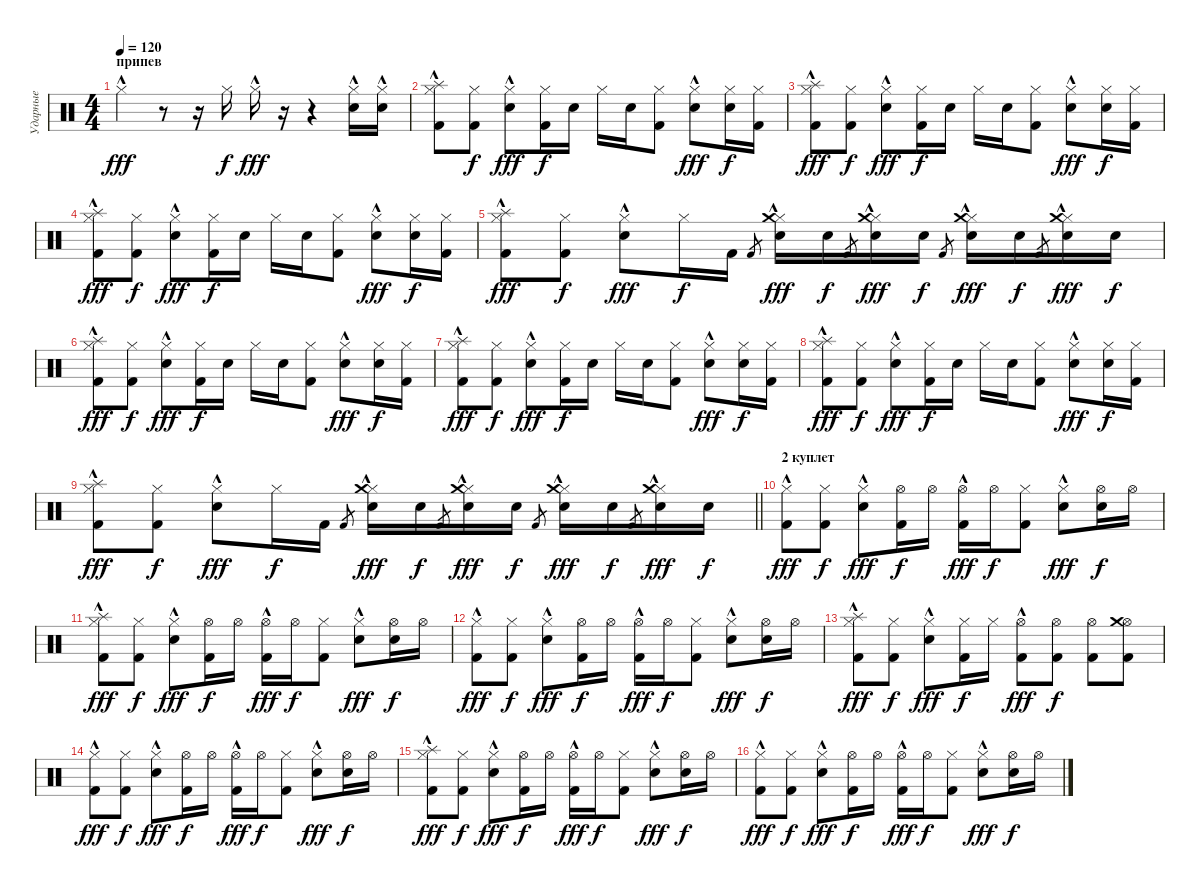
\track ("Ударные" "Ударные") {instrument percussion}
\staff {score}
\articulation defaults
\ts (4 4)
\section ("" "припев")
\tempo 120
\clef neutral
\ks c "Hi-Hat (closed)"{hac}.4{dy fff}
r.8 r.16 "Hi-Hat (closed)".16{dy f} "Hi-Hat (closed)"{hac}.16{dy fff} r.16 r.4 ("Hi-Hat (closed)" "Snare (hit) 2"{hac}).16 ("Hi-Hat (closed)" "Snare (hit) 2"{hac}).16 |
("Hi-Hat (closed)" "Splash (hit)" "Kick (hit) 2"{hac}).8 ("Hi-Hat (closed)" "Kick (hit) 2").8{dy f} ("Hi-Hat (closed)" "Snare (hit) 2"{hac}).8{dy fff} ("Hi-Hat (closed)" "Kick (hit) 2").16{dy f} "Snare (hit) 2".16 "Hi-Hat (closed)".16 "Snare (hit) 2".16 ("Hi-Hat (closed)" "Kick (hit) 2").8 ("Hi-Hat (closed)" "Snare (hit) 2"{hac}).8{dy fff} ("Hi-Hat (closed)" "Snare (hit) 2").16{dy f} ("Hi-Hat (closed)" "Kick (hit) 2").16 |
("Hi-Hat (closed)" "Splash (hit)" "Kick (hit) 2"{hac}).8{dy fff} ("Hi-Hat (closed)" "Kick (hit) 2").8{dy f} ("Hi-Hat (closed)" "Snare (hit) 2"{hac}).8{dy fff} ("Hi-Hat (closed)" "Kick (hit) 2").16{dy f} "Snare (hit) 2".16 "Hi-Hat (closed)".16 "Snare (hit) 2".16 ("Hi-Hat (closed)" "Kick (hit) 2").8 ("Hi-Hat (closed)" "Snare (hit) 2"{hac}).8{dy fff} ("Hi-Hat (closed)" "Snare (hit) 2").16{dy f} ("Hi-Hat (closed)" "Kick (hit) 2").16 |
("Hi-Hat (closed)" "Splash (hit)" "Kick (hit) 2"{hac}).8{dy fff} ("Hi-Hat (closed)" "Kick (hit) 2").8{dy f} ("Hi-Hat (closed)" "Snare (hit) 2"{hac}).8{dy fff} ("Hi-Hat (closed)" "Kick (hit) 2").16{dy f} "Snare (hit) 2".16 "Hi-Hat (closed)".16 "Snare (hit) 2".16 ("Hi-Hat (closed)" "Kick (hit) 2").8 ("Hi-Hat (closed)" "Snare (hit) 2"{hac}).8{dy fff} ("Hi-Hat (closed)" "Snare (hit) 2").16{dy f} ("Hi-Hat (closed)" "Kick (hit) 2").16 |
("Hi-Hat (closed)" "Splash (hit)" "Kick (hit) 2"{hac}).8{dy fff} ("Hi-Hat (closed)" "Kick (hit) 2").8{dy f} ("Hi-Hat (closed)" "Snare (hit) 2"{hac}).8{dy fff} "Hi-Hat (closed)".16{dy f} "Kick (hit) 2".16 "Kick (hit) 2".8{gr} ("Hi-Hat (closed)" "Crash medium (hit)" "Electric Snare (hit)"{hac}).16{dy fff} "Snare (hit) 2".16{dy f} "Kick (hit) 2".8{gr} ("Hi-Hat (closed)" "Crash medium (hit)" "Electric Snare (hit)"{hac}).16{dy fff} "Snare (hit) 2".16{dy f} "Kick (hit) 2".8{gr} ("Hi-Hat (closed)" "Crash medium (hit)" "Electric Snare (hit)"{hac}).16{dy fff} "Snare (hit) 2".16{dy f} "Kick (hit) 2".8{gr} ("Hi-Hat (closed)" "Crash medium (hit)" "Electric Snare (hit)"{hac}).16{dy fff} "Snare (hit) 2".16{dy f} |
("Hi-Hat (closed)" "Splash (hit)" "Kick (hit) 2"{hac}).8{dy fff} ("Hi-Hat (closed)" "Kick (hit) 2").8{dy f} ("Hi-Hat (closed)" "Snare (hit) 2"{hac}).8{dy fff} ("Hi-Hat (closed)" "Kick (hit) 2").16{dy f} "Snare (hit) 2".16 "Hi-Hat (closed)".16 "Snare (hit) 2".16 ("Hi-Hat (closed)" "Kick (hit) 2").8 ("Hi-Hat (closed)" "Snare (hit) 2"{hac}).8{dy fff} ("Hi-Hat (closed)" "Snare (hit) 2").16{dy f} ("Hi-Hat (closed)" "Kick (hit) 2").16 |
("Hi-Hat (closed)" "Splash (hit)" "Kick (hit) 2"{hac}).8{dy fff} ("Hi-Hat (closed)" "Kick (hit) 2").8{dy f} ("Hi-Hat (closed)" "Snare (hit) 2"{hac}).8{dy fff} ("Hi-Hat (closed)" "Kick (hit) 2").16{dy f} "Snare (hit) 2".16 "Hi-Hat (closed)".16 "Snare (hit) 2".16 ("Hi-Hat (closed)" "Kick (hit) 2").8 ("Hi-Hat (closed)" "Snare (hit) 2"{hac}).8{dy fff} ("Hi-Hat (closed)" "Snare (hit) 2").16{dy f} ("Hi-Hat (closed)" "Kick (hit) 2").16 |
("Hi-Hat (closed)" "Splash (hit)" "Kick (hit) 2"{hac}).8{dy fff} ("Hi-Hat (closed)" "Kick (hit) 2").8{dy f} ("Hi-Hat (closed)" "Snare (hit) 2"{hac}).8{dy fff} ("Hi-Hat (closed)" "Kick (hit) 2").16{dy f} "Snare (hit) 2".16 "Hi-Hat (closed)".16 "Snare (hit) 2".16 ("Hi-Hat (closed)" "Kick (hit) 2").8 ("Hi-Hat (closed)" "Snare (hit) 2"{hac}).8{dy fff} ("Hi-Hat (closed)" "Snare (hit) 2").16{dy f} ("Hi-Hat (closed)" "Kick (hit) 2").16 |
\barLineRight lightlight
("Hi-Hat (closed)" "Splash (hit)" "Kick (hit) 2"{hac}).8{dy fff} ("Hi-Hat (closed)" "Kick (hit) 2").8{dy f} ("Hi-Hat (closed)" "Snare (hit) 2"{hac}).8{dy fff} "Hi-Hat (closed)".16{dy f} "Kick (hit) 2".16 "Kick (hit) 2".8{gr} ("Hi-Hat (closed)" "Crash medium (hit)" "Electric Snare (hit)"{hac}).16{dy fff} "Snare (hit) 2".16{dy f} "Kick (hit) 2".8{gr} ("Hi-Hat (closed)" "Crash medium (hit)" "Electric Snare (hit)"{hac}).16{dy fff} "Snare (hit) 2".16{dy f} "Kick (hit) 2".8{gr} ("Hi-Hat (closed)" "Crash medium (hit)" "Electric Snare (hit)"{hac}).16{dy fff} "Snare (hit) 2".16{dy f} "Kick (hit) 2".8{gr} ("Hi-Hat (closed)" "Crash medium (hit)" "Electric Snare (hit)"{hac}).16{dy fff} "Snare (hit) 2".16{dy f} |
\section ("" "2 куплет")
("Hi-Hat (closed)"{hac} "Kick (hit) 2"{hac}).8{dy fff} ("Hi-Hat (closed)" "Kick (hit) 2").8{dy f} ("Hi-Hat (closed)"{hac} "Snare (hit) 2"{hac}).8{dy fff} ("Hi-Hat (open)" "Kick (hit) 2").16{dy f} "Hi-Hat (open)".16 ("Hi-Hat (open)" "Kick (hit) 2"{hac}).16{dy fff} "Hi-Hat (open)".16{dy f} ("Hi-Hat (closed)" "Kick (hit) 2").8 ("Hi-Hat (closed)" "Snare (hit) 2"{hac}).8{dy fff} ("Hi-Hat (open)" "Electric Snare (hit)").16{dy f} "Hi-Hat (open)".16 |
("Hi-Hat (closed)"{hac} "Splash (hit)" "Kick (hit) 2"{hac}).8{dy fff} ("Hi-Hat (closed)" "Kick (hit) 2").8{dy f} ("Hi-Hat (closed)"{hac} "Snare (hit) 2"{hac}).8{dy fff} ("Hi-Hat (open)" "Kick (hit) 2").16{dy f} "Hi-Hat (open)".16 ("Hi-Hat (open)" "Kick (hit) 2"{hac}).16{dy fff} "Hi-Hat (open)".16{dy f} ("Hi-Hat (closed)" "Kick (hit) 2").8 ("Hi-Hat (closed)" "Snare (hit) 2"{hac}).8{dy fff} ("Hi-Hat (open)" "Electric Snare (hit)").16{dy f} "Hi-Hat (open)".16 |
("Hi-Hat (closed)"{hac} "Kick (hit) 2"{hac}).8{dy fff} ("Hi-Hat (closed)" "Kick (hit) 2").8{dy f} ("Hi-Hat (closed)"{hac} "Snare (hit) 2"{hac}).8{dy fff} ("Hi-Hat (open)" "Kick (hit) 2").16{dy f} "Hi-Hat (open)".16 ("Hi-Hat (open)" "Kick (hit) 2"{hac}).16{dy fff} "Hi-Hat (open)".16{dy f} ("Hi-Hat (closed)" "Kick (hit) 2").8 ("Hi-Hat (closed)" "Snare (hit) 2"{hac}).8{dy fff} ("Hi-Hat (open)" "Electric Snare (hit)").16{dy f} "Hi-Hat (open)".16 |
("Hi-Hat (closed)"{hac} "Splash (hit)" "Kick (hit) 2"{hac}).8{dy fff} ("Hi-Hat (closed)" "Kick (hit) 2").8{dy f} ("Hi-Hat (closed)"{hac} "Snare (hit) 2"{hac}).8{dy fff} ("Hi-Hat (closed)" "Kick (hit) 2").16{dy f} "Hi-Hat (closed)".16 ("Hi-Hat (open)" "Kick (hit) 2"{hac}).8{dy fff} ("Hi-Hat (open)" "Kick (hit) 2").8{dy f} ("Hi-Hat (open)" "Kick (hit) 2").8 ("Hi-Hat (open)" "Crash medium (hit)" "Kick (hit) 2").8 |
("Hi-Hat (closed)"{hac} "Kick (hit) 2"{hac}).8{dy fff} ("Hi-Hat (closed)" "Kick (hit) 2").8{dy f} ("Hi-Hat (closed)"{hac} "Snare (hit) 2"{hac}).8{dy fff} ("Hi-Hat (open)" "Kick (hit) 2").16{dy f} "Hi-Hat (open)".16 ("Hi-Hat (open)" "Kick (hit) 2"{hac}).16{dy fff} "Hi-Hat (open)".16{dy f} ("Hi-Hat (closed)" "Kick (hit) 2").8 ("Hi-Hat (closed)" "Snare (hit) 2"{hac}).8{dy fff} ("Hi-Hat (open)" "Electric Snare (hit)").16{dy f} "Hi-Hat (open)".16 |
("Hi-Hat (closed)"{hac} "Splash (hit)" "Kick (hit) 2"{hac}).8{dy fff} ("Hi-Hat (closed)" "Kick (hit) 2").8{dy f} ("Hi-Hat (closed)"{hac} "Snare (hit) 2"{hac}).8{dy fff} ("Hi-Hat (open)" "Kick (hit) 2").16{dy f} "Hi-Hat (open)".16 ("Hi-Hat (open)" "Kick (hit) 2"{hac}).16{dy fff} "Hi-Hat (open)".16{dy f} ("Hi-Hat (closed)" "Kick (hit) 2").8 ("Hi-Hat (closed)" "Snare (hit) 2"{hac}).8{dy fff} ("Hi-Hat (open)" "Electric Snare (hit)").16{dy f} "Hi-Hat (open)".16 |
("Hi-Hat (closed)"{hac} "Kick (hit) 2"{hac}).8{dy fff} ("Hi-Hat (closed)" "Kick (hit) 2").8{dy f} ("Hi-Hat (closed)"{hac} "Snare (hit) 2"{hac}).8{dy fff} ("Hi-Hat (open)" "Kick (hit) 2").16{dy f} "Hi-Hat (open)".16 ("Hi-Hat (open)" "Kick (hit) 2"{hac}).16{dy fff} "Hi-Hat (open)".16{dy f} ("Hi-Hat (closed)" "Kick (hit) 2").8 ("Hi-Hat (closed)" "Snare (hit) 2"{hac}).8{dy fff} ("Hi-Hat (open)" "Electric Snare (hit)").16{dy f} "Hi-Hat (open)".16
